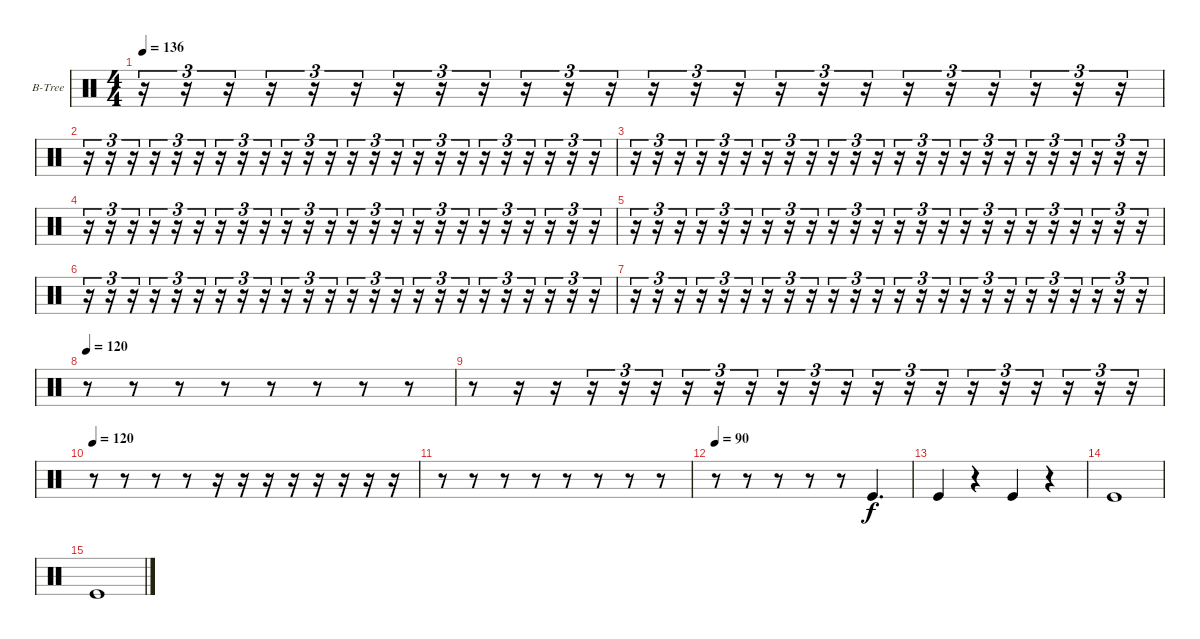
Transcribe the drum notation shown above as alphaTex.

\bracketExtendMode groupsimilarinstruments
\firstSystemTrackNameOrientation horizontal
\otherSystemsTrackNameOrientation horizontal
\track ("Bell Tree" "B-Tree") {instrument percussion}
\staff {score}
\articulation defaults
\ts (4 4)
\tempo 136
\clef neutral
\ks c
r.16{tu (3 2) dy f} r.16{tu (3 2)} r.16{tu (3 2)} r.16{tu (3 2)} r.16{tu (3 2)} r.16{tu (3 2)} r.16{tu (3 2)} r.16{tu (3 2)} r.16{tu (3 2)} r.16{tu (3 2)} r.16{tu (3 2)} r.16{tu (3 2)} r.16{tu (3 2)} r.16{tu (3 2)} r.16{tu (3 2)} r.16{tu (3 2)} r.16{tu (3 2)} r.16{tu (3 2)} r.16{tu (3 2)} r.16{tu (3 2)} r.16{tu (3 2)} r.16{tu (3 2)} r.16{tu (3 2)} r.16{tu (3 2)} |
r.16{tu (3 2)} r.16{tu (3 2)} r.16{tu (3 2)} r.16{tu (3 2)} r.16{tu (3 2)} r.16{tu (3 2)} r.16{tu (3 2)} r.16{tu (3 2)} r.16{tu (3 2)} r.16{tu (3 2)} r.16{tu (3 2)} r.16{tu (3 2)} r.16{tu (3 2)} r.16{tu (3 2)} r.16{tu (3 2)} r.16{tu (3 2)} r.16{tu (3 2)} r.16{tu (3 2)} r.16{tu (3 2)} r.16{tu (3 2)} r.16{tu (3 2)} r.16{tu (3 2)} r.16{tu (3 2)} r.16{tu (3 2)} |
r.16{tu (3 2)} r.16{tu (3 2)} r.16{tu (3 2)} r.16{tu (3 2)} r.16{tu (3 2)} r.16{tu (3 2)} r.16{tu (3 2)} r.16{tu (3 2)} r.16{tu (3 2)} r.16{tu (3 2)} r.16{tu (3 2)} r.16{tu (3 2)} r.16{tu (3 2)} r.16{tu (3 2)} r.16{tu (3 2)} r.16{tu (3 2)} r.16{tu (3 2)} r.16{tu (3 2)} r.16{tu (3 2)} r.16{tu (3 2)} r.16{tu (3 2)} r.16{tu (3 2)} r.16{tu (3 2)} r.16{tu (3 2)} |
r.16{tu (3 2)} r.16{tu (3 2)} r.16{tu (3 2)} r.16{tu (3 2)} r.16{tu (3 2)} r.16{tu (3 2)} r.16{tu (3 2)} r.16{tu (3 2)} r.16{tu (3 2)} r.16{tu (3 2)} r.16{tu (3 2)} r.16{tu (3 2)} r.16{tu (3 2)} r.16{tu (3 2)} r.16{tu (3 2)} r.16{tu (3 2)} r.16{tu (3 2)} r.16{tu (3 2)} r.16{tu (3 2)} r.16{tu (3 2)} r.16{tu (3 2)} r.16{tu (3 2)} r.16{tu (3 2)} r.16{tu (3 2)} |
r.16{tu (3 2)} r.16{tu (3 2)} r.16{tu (3 2)} r.16{tu (3 2)} r.16{tu (3 2)} r.16{tu (3 2)} r.16{tu (3 2)} r.16{tu (3 2)} r.16{tu (3 2)} r.16{tu (3 2)} r.16{tu (3 2)} r.16{tu (3 2)} r.16{tu (3 2)} r.16{tu (3 2)} r.16{tu (3 2)} r.16{tu (3 2)} r.16{tu (3 2)} r.16{tu (3 2)} r.16{tu (3 2)} r.16{tu (3 2)} r.16{tu (3 2)} r.16{tu (3 2)} r.16{tu (3 2)} r.16{tu (3 2)} |
r.16{tu (3 2)} r.16{tu (3 2)} r.16{tu (3 2)} r.16{tu (3 2)} r.16{tu (3 2)} r.16{tu (3 2)} r.16{tu (3 2)} r.16{tu (3 2)} r.16{tu (3 2)} r.16{tu (3 2)} r.16{tu (3 2)} r.16{tu (3 2)} r.16{tu (3 2)} r.16{tu (3 2)} r.16{tu (3 2)} r.16{tu (3 2)} r.16{tu (3 2)} r.16{tu (3 2)} r.16{tu (3 2)} r.16{tu (3 2)} r.16{tu (3 2)} r.16{tu (3 2)} r.16{tu (3 2)} r.16{tu (3 2)} |
r.16{tu (3 2)} r.16{tu (3 2)} r.16{tu (3 2)} r.16{tu (3 2)} r.16{tu (3 2)} r.16{tu (3 2)} r.16{tu (3 2)} r.16{tu (3 2)} r.16{tu (3 2)} r.16{tu (3 2)} r.16{tu (3 2)} r.16{tu (3 2)} r.16{tu (3 2)} r.16{tu (3 2)} r.16{tu (3 2)} r.16{tu (3 2)} r.16{tu (3 2)} r.16{tu (3 2)} r.16{tu (3 2)} r.16{tu (3 2)} r.16{tu (3 2)} r.16{tu (3 2)} r.16{tu (3 2)} r.16{tu (3 2)} |
\tempo 120
r.8 r.8 r.8 r.8 r.8 r.8 r.8 r.8 |
r.8 r.16 r.16 r.16{tu (3 2)} r.16{tu (3 2)} r.16{tu (3 2)} r.16{tu (3 2)} r.16{tu (3 2)} r.16{tu (3 2)} r.16{tu (3 2)} r.16{tu (3 2)} r.16{tu (3 2)} r.16{tu (3 2)} r.16{tu (3 2)} r.16{tu (3 2)} r.16{tu (3 2)} r.16{tu (3 2)} r.16{tu (3 2)} r.16{tu (3 2)} r.16{tu (3 2)} r.16{tu (3 2)} |
\tempo 120
r.8 r.8 r.8 r.8 r.16 r.16 r.16 r.16 r.16 r.16 r.16 r.16 |
r.8 r.8 r.8 r.8 r.8 r.8 r.8 r.8 |
\tempo 90
r.8 r.8 r.8 r.8 r.8 "Kick (hit)".4{d} |
"Kick (hit)".4 r.4 "Kick (hit)".4 r.4 |
"Kick (hit)".1 |
"Kick (hit)".1
